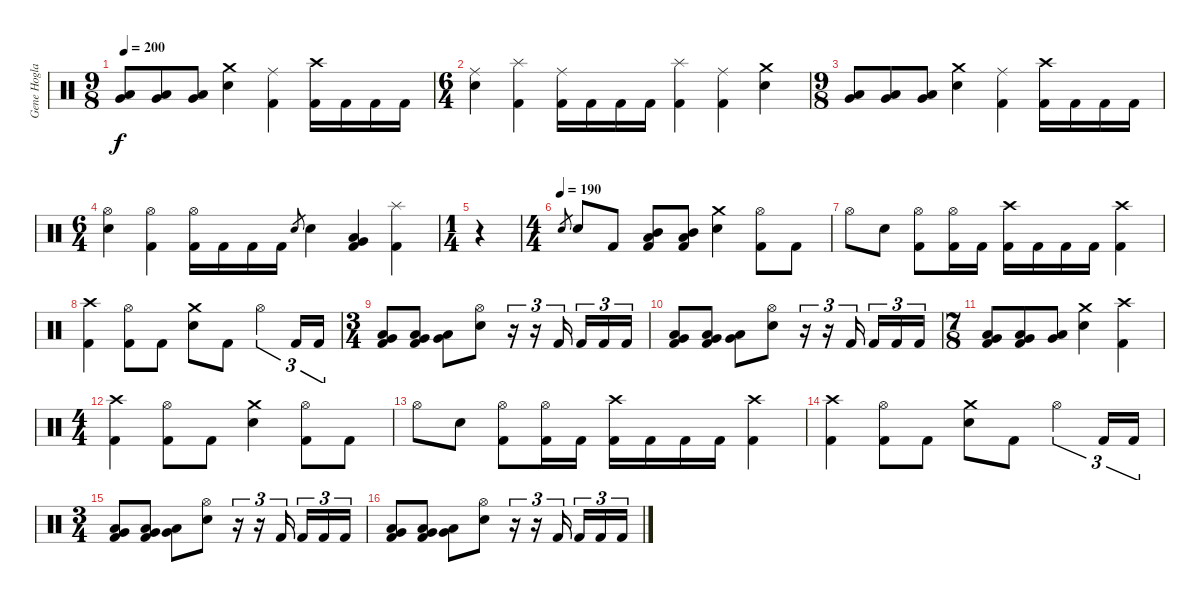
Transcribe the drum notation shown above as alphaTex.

\track ("Gene Hoglan" "Gene Hogla") {instrument percussion}
\staff {score}
\articulation defaults
\ts (9 8)
\tempo 200
\clef neutral
\ks c
("Low Tom (hit)" "Very Low Tom (hit)").8{dy f} ("Low Tom (hit)" "Very Low Tom (hit)").8 ("Low Tom (hit)" "Very Low Tom (hit)").8 ("Crash medium (hit)" "Electric Snare (hit)").4 ("Ride (middle)" "Kick (hit) 2").4 ("Crash high (hit)" "Kick (hit) 2").16 "Kick (hit) 2".16 "Kick (hit) 2".16 "Kick (hit) 2".16 |
\ts (6 4)
("Ride (middle)" "Electric Snare (hit)").4 ("Splash (hit)" "Kick (hit) 2").4 ("Ride (middle)" "Kick (hit) 2").16 "Kick (hit) 2".16 "Kick (hit) 2".16 "Kick (hit) 2".16 ("Splash (hit)" "Kick (hit) 2").4 ("Ride (middle)" "Kick (hit) 2").4 ("Crash medium (hit)" "Electric Snare (hit)").4 |
\ts (9 8)
("Low Tom (hit)" "Very Low Tom (hit)").8 ("Low Tom (hit)" "Very Low Tom (hit)").8 ("Low Tom (hit)" "Very Low Tom (hit)").8 ("Crash medium (hit)" "Electric Snare (hit)").4 ("Ride (middle)" "Kick (hit) 2").4 ("Crash high (hit)" "Kick (hit) 2").16 "Kick (hit) 2".16 "Kick (hit) 2".16 "Kick (hit) 2".16 |
\ts (6 4)
("Hi-Hat (open)" "Electric Snare (hit)").4 ("Hi-Hat (open)" "Kick (hit) 2").4 ("Hi-Hat (open)" "Kick (hit) 2").16 "Kick (hit) 2".16 "Kick (hit) 2".16 "Kick (hit) 2".16 "Electric Snare (hit)".8{gr} "Electric Snare (hit)".4 ("Low Tom (hit)" "Very Low Tom (hit)" "Kick (hit) 2").4 ("Splash (hit)" "Kick (hit) 2").4 |
\ts (1 4)
r.4 |
\ts (4 4)
\tempo (190)
"Electric Snare (hit)".8{gr} "Electric Snare (hit)".8 "Kick (hit) 2".8 ("Mid Tom (hit)" "Low Tom (hit)" "Kick (hit) 2").8 ("Mid Tom (hit)" "Low Tom (hit)" "Kick (hit) 2").8 ("Crash medium (hit)" "Electric Snare (hit)").4 ("Hi-Hat (open)" "Kick (hit) 2").8 "Kick (hit) 2".8 |
"Hi-Hat (open)".8 "Electric Snare (hit)".8 ("Hi-Hat (open)" "Kick (hit) 2").8 ("Hi-Hat (open)" "Kick (hit) 2").16 "Kick (hit) 2".16 ("Crash high (hit)" "Kick (hit) 2").16 "Kick (hit) 2".16 "Kick (hit) 2".16 "Kick (hit) 2".16 ("Crash high (hit)" "Kick (hit) 2").4 |
("Crash high (hit)" "Kick (hit) 2").4 ("Hi-Hat (open)" "Kick (hit) 2").8 "Kick (hit) 2".8 ("Crash medium (hit)" "Electric Snare (hit)").8 "Kick (hit) 2".8 "Hi-Hat (open)".4{tu (3 2)} "Kick (hit) 2".16{tu (3 2)} "Kick (hit) 2".16{tu (3 2)} |
\ts (3 4)
("Low Tom (hit)" "Very Low Tom (hit)" "Kick (hit) 2").8 ("Low Tom (hit)" "Very Low Tom (hit)" "Kick (hit) 2").8 ("Very Low Tom (hit)" "Low Floor Tom (hit)").8 ("Hi-Hat (open)" "Electric Snare (hit)").8 r.16{tu (3 2)} r.16{tu (3 2)} "Kick (hit) 2".16{tu (3 2)} "Kick (hit) 2".16{tu (3 2)} "Kick (hit) 2".16{tu (3 2)} "Kick (hit) 2".16{tu (3 2)} |
("Low Tom (hit)" "Very Low Tom (hit)" "Kick (hit) 2").8 ("Low Tom (hit)" "Very Low Tom (hit)" "Kick (hit) 2").8 ("Very Low Tom (hit)" "Low Floor Tom (hit)").8 ("Hi-Hat (open)" "Electric Snare (hit)").8 r.16{tu (3 2)} r.16{tu (3 2)} "Kick (hit) 2".16{tu (3 2)} "Kick (hit) 2".16{tu (3 2)} "Kick (hit) 2".16{tu (3 2)} "Kick (hit) 2".16{tu (3 2)} |
\ts (7 8)
("Low Tom (hit)" "Very Low Tom (hit)" "Kick (hit) 2").8 ("Low Tom (hit)" "Very Low Tom (hit)" "Kick (hit) 2").8 ("Very Low Tom (hit)" "Low Floor Tom (hit)").8 ("Crash medium (hit)" "Electric Snare (hit)").4 ("Crash high (hit)" "Kick (hit) 2").4 |
\ts (4 4)
("Crash high (hit)" "Kick (hit) 2").4 ("Hi-Hat (open)" "Kick (hit) 2").8 "Kick (hit) 2".8 ("Crash medium (hit)" "Electric Snare (hit)").4 ("Hi-Hat (open)" "Kick (hit) 2").8 "Kick (hit) 2".8 |
"Hi-Hat (open)".8 "Electric Snare (hit)".8 ("Hi-Hat (open)" "Kick (hit) 2").8 ("Hi-Hat (open)" "Kick (hit) 2").16 "Kick (hit) 2".16 ("Crash high (hit)" "Kick (hit) 2").16 "Kick (hit) 2".16 "Kick (hit) 2".16 "Kick (hit) 2".16 ("Crash high (hit)" "Kick (hit) 2").4 |
("Crash high (hit)" "Kick (hit) 2").4 ("Hi-Hat (open)" "Kick (hit) 2").8 "Kick (hit) 2".8 ("Crash medium (hit)" "Electric Snare (hit)").8 "Kick (hit) 2".8 "Hi-Hat (open)".4{tu (3 2)} "Kick (hit) 2".16{tu (3 2)} "Kick (hit) 2".16{tu (3 2)} |
\ts (3 4)
("Low Tom (hit)" "Very Low Tom (hit)" "Kick (hit) 2").8 ("Low Tom (hit)" "Very Low Tom (hit)" "Kick (hit) 2").8 ("Very Low Tom (hit)" "Low Floor Tom (hit)").8 ("Hi-Hat (open)" "Electric Snare (hit)").8 r.16{tu (3 2)} r.16{tu (3 2)} "Kick (hit) 2".16{tu (3 2)} "Kick (hit) 2".16{tu (3 2)} "Kick (hit) 2".16{tu (3 2)} "Kick (hit) 2".16{tu (3 2)} |
("Low Tom (hit)" "Very Low Tom (hit)" "Kick (hit) 2").8 ("Low Tom (hit)" "Very Low Tom (hit)" "Kick (hit) 2").8 ("Very Low Tom (hit)" "Low Floor Tom (hit)").8 ("Hi-Hat (open)" "Electric Snare (hit)").8 r.16{tu (3 2)} r.16{tu (3 2)} "Kick (hit) 2".16{tu (3 2)} "Kick (hit) 2".16{tu (3 2)} "Kick (hit) 2".16{tu (3 2)} "Kick (hit) 2".16{tu (3 2)}
